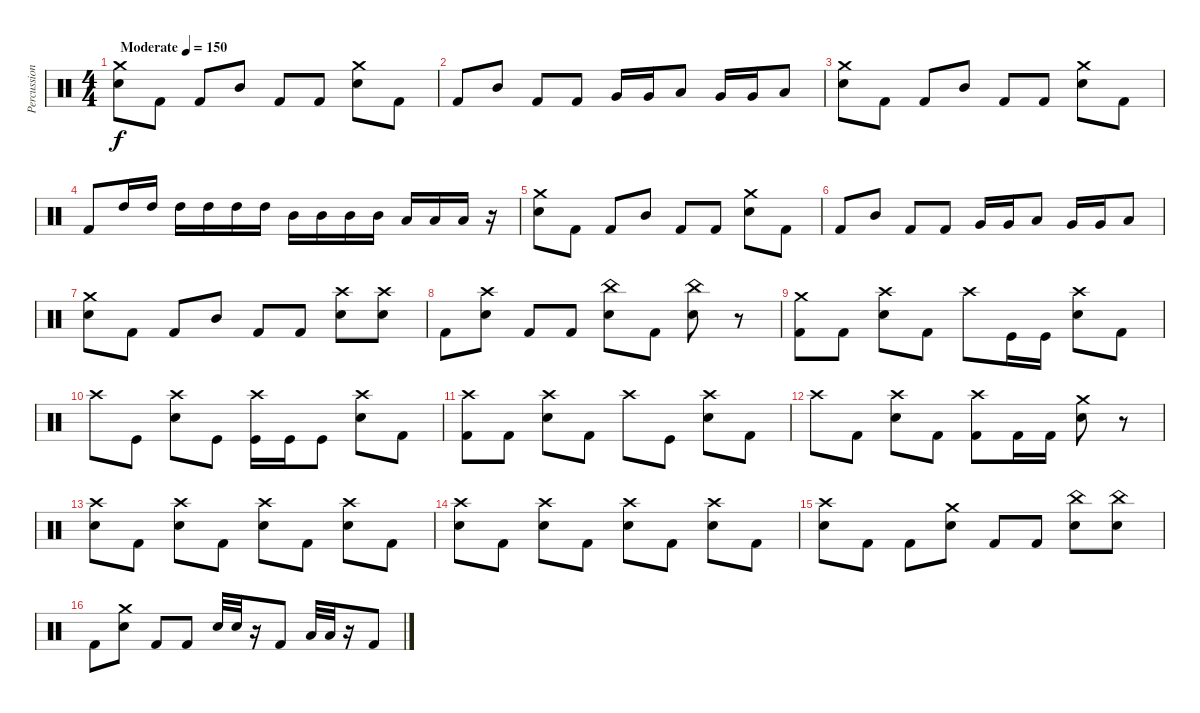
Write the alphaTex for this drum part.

\track ("Percussion" "Percussion") {instrument percussion}
\staff {score}
\articulation defaults
\ts (4 4)
\tempo (150 "Moderate")
\clef neutral
\ks c
("Snare (hit) 2" "Crash medium (hit)").8{dy f} "Kick (hit) 2".8 "Kick (hit) 2".8 "Mid Tom (hit)".8 "Kick (hit) 2".8 "Kick (hit) 2".8 ("Snare (hit) 2" "Crash medium (hit)").8 "Kick (hit) 2".8 |
"Kick (hit) 2".8 "Mid Tom (hit)".8 "Kick (hit) 2".8 "Kick (hit) 2".8 "Very Low Tom (hit)".16 "Very Low Tom (hit)".16 "Low Floor Tom (hit)".8 "Very Low Tom (hit)".16 "Very Low Tom (hit)".16 "Low Floor Tom (hit)".8 |
("Snare (hit) 2" "Crash medium (hit)").8 "Kick (hit) 2".8 "Kick (hit) 2".8 "Mid Tom (hit)".8 "Kick (hit) 2".8 "Kick (hit) 2".8 ("Snare (hit) 2" "Crash medium (hit)").8 "Kick (hit) 2".8 |
"Kick (hit) 2".8 "High Tom (hit)".16 "High Tom (hit)".16 "High Tom (hit)".16 "High Tom (hit)".16 "High Tom (hit)".16 "High Tom (hit)".16 "Mid Tom (hit)".16 "Mid Tom (hit)".16 "Mid Tom (hit)".16 "Mid Tom (hit)".16 "Low Tom (hit)".16 "Low Tom (hit)".16 "Low Tom (hit)".16 r.16 |
("Snare (hit) 2" "Crash medium (hit)").8 "Kick (hit) 2".8 "Kick (hit) 2".8 "Mid Tom (hit)".8 "Kick (hit) 2".8 "Kick (hit) 2".8 ("Snare (hit) 2" "Crash medium (hit)").8 "Kick (hit) 2".8 |
"Kick (hit) 2".8 "Mid Tom (hit)".8 "Kick (hit) 2".8 "Kick (hit) 2".8 "Very Low Tom (hit)".16 "Very Low Tom (hit)".16 "Low Floor Tom (hit)".8 "Very Low Tom (hit)".16 "Very Low Tom (hit)".16 "Low Floor Tom (hit)".8 |
("Snare (hit) 2" "Crash medium (hit)").8 "Kick (hit) 2".8 "Kick (hit) 2".8 "Mid Tom (hit)".8 "Kick (hit) 2".8 "Kick (hit) 2".8 ("Snare (hit) 2" "Crash high (hit)").8 ("Snare (hit) 2" "Crash high (hit)").8 |
"Kick (hit) 2".8 ("Snare (hit) 2" "Crash high (hit)").8 "Kick (hit) 2".8 "Kick (hit) 2".8 ("Snare (hit) 2" "China (hit)").8 "Kick (hit) 2".8 ("China (hit)" "Snare (hit) 2").8 r.8 |
("Crash medium (hit)" "Kick (hit) 2").8 "Kick (hit) 2".8 ("Snare (hit) 2" "Crash high (hit)").8 "Kick (hit) 2".8 "Crash high (hit)".8 "Kick (hit)".16 "Kick (hit)".16 ("Snare (hit) 2" "Crash high (hit)").8 "Kick (hit) 2".8 |
"Crash high (hit)".8 "Kick (hit)".8 ("Snare (hit) 2" "Crash high (hit)").8 "Kick (hit)".8 ("Kick (hit)" "Crash high (hit)").16 "Kick (hit)".16 "Kick (hit)".8 ("Snare (hit) 2" "Crash high (hit)").8 "Kick (hit) 2".8 |
("Crash high (hit)" "Kick (hit) 2").8 "Kick (hit) 2".8 ("Snare (hit) 2" "Crash high (hit)").8 "Kick (hit) 2".8 "Crash high (hit)".8 "Kick (hit)".8 ("Snare (hit) 2" "Crash high (hit)").8 "Kick (hit) 2".8 |
"Crash high (hit)".8 "Kick (hit) 2".8 ("Snare (hit) 2" "Crash high (hit)").8 "Kick (hit) 2".8 ("Kick (hit) 2" "Crash high (hit)").8 "Kick (hit) 2".16 "Kick (hit) 2".16 ("Snare (hit) 2" "Crash medium (hit)").8 r.8 |
("Snare (hit) 2" "Crash high (hit)").8 "Kick (hit) 2".8 ("Crash high (hit)" "Snare (hit) 2").8 "Kick (hit) 2".8 ("Snare (hit) 2" "Crash high (hit)").8 "Kick (hit) 2".8 ("Crash high (hit)" "Snare (hit) 2").8 "Kick (hit) 2".8 |
("Snare (hit) 2" "Crash high (hit)").8 "Kick (hit) 2".8 ("Crash high (hit)" "Snare (hit) 2").8 "Kick (hit) 2".8 ("Snare (hit) 2" "Crash high (hit)").8 "Kick (hit) 2".8 ("Crash high (hit)" "Snare (hit) 2").8 "Kick (hit) 2".8 |
("Snare (hit) 2" "Crash high (hit)").8 "Kick (hit) 2".8 "Kick (hit) 2".8 ("Crash medium (hit)" "Snare (hit) 2").8 "Kick (hit) 2".8 "Kick (hit) 2".8 ("Snare (hit) 2" "China (hit)").8 ("China (hit)" "Snare (hit) 2").8 |
"Kick (hit) 2".8 ("Snare (hit) 2" "Crash medium (hit)").8 "Kick (hit) 2".8 "Kick (hit) 2".8 "Snare (hit) 2".32 "Snare (hit) 2".32 r.16 "Kick (hit) 2".8 "Low Tom (hit)".32 "Low Tom (hit)".32 r.16 "Kick (hit) 2".8
